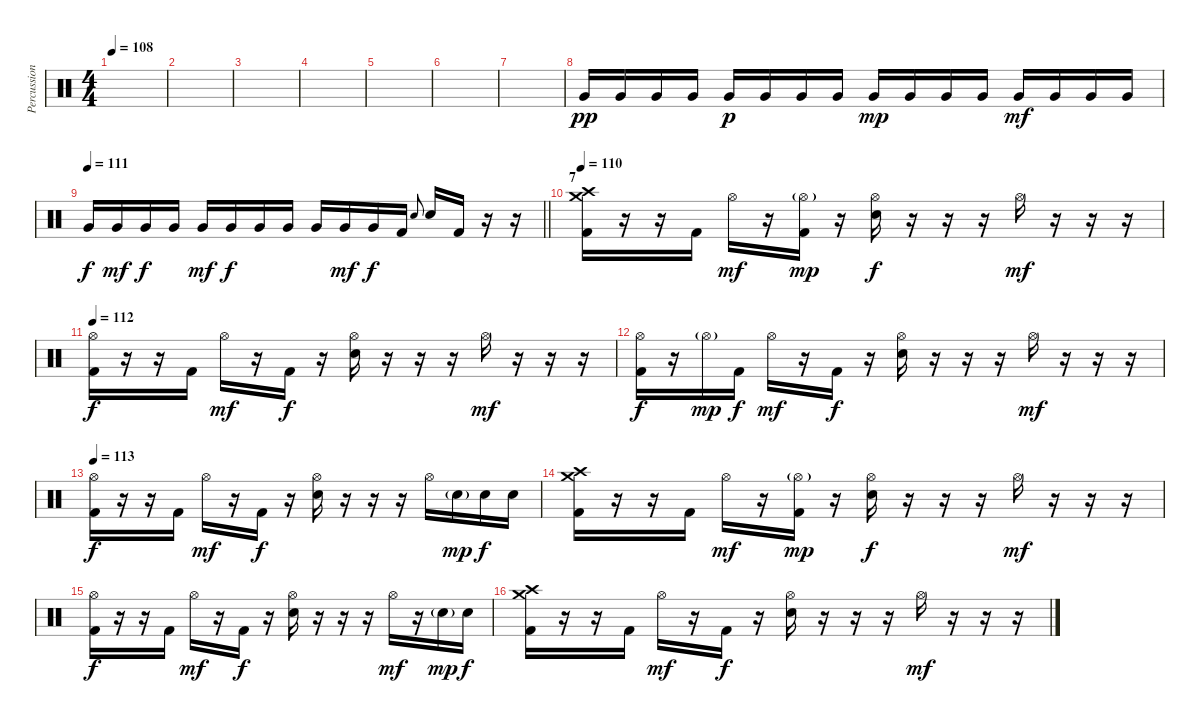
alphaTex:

\track ("Percussion" "Percussion") {instrument percussion}
\staff {score}
\articulation defaults
\ts (4 4)
\tempo 108
\clef neutral
\ks c
|
|
|
|
|
|
|
"Very Low Tom (hit)".16{dy pp} "Very Low Tom (hit)".16 "Very Low Tom (hit)".16 "Very Low Tom (hit)".16 "Very Low Tom (hit)".16{dy p} "Very Low Tom (hit)".16 "Very Low Tom (hit)".16 "Very Low Tom (hit)".16 "Very Low Tom (hit)".16{dy mp} "Very Low Tom (hit)".16 "Very Low Tom (hit)".16 "Very Low Tom (hit)".16 "Very Low Tom (hit)".16{dy mf} "Very Low Tom (hit)".16 "Very Low Tom (hit)".16 "Very Low Tom (hit)".16 |
\tempo 111
\barLineRight lightlight "Very Low Tom (hit)".16{dy f} "Very Low Tom (hit)".16{dy mf} "Very Low Tom (hit)".16{dy f} "Very Low Tom (hit)".16 "Very Low Tom (hit)".16{dy mf} "Very Low Tom (hit)".16{dy f} "Very Low Tom (hit)".16 "Very Low Tom (hit)".16 "Very Low Tom (hit)".16 "Very Low Tom (hit)".16{dy mf} "Very Low Tom (hit)".16{dy f} "Kick (hit) 2".16 "Snare (hit) 2".8{gr onbeat} "Snare (hit) 2".16 "Kick (hit) 2".16
r.16 r.16 |
\section ("" "7")
\tempo 110
("Crash high (hit)" "Crash medium (hit)" "Kick (hit) 2").16 r.16 r.16 "Kick (hit) 2".16 "Hi-Hat (open)".16{dy mf} r.16 ("Hi-Hat (open)"{g} "Kick (hit) 2").16{dy mp} r.16 ("Hi-Hat (open)" "Snare (hit) 2").16{dy f} r.16 r.16 r.16 "Hi-Hat (open)".16{dy mf} r.16 r.16 r.16 |
\tempo 112
("Hi-Hat (open)" "Kick (hit) 2").16{dy f} r.16 r.16 "Kick (hit) 2".16 "Hi-Hat (open)".16{dy mf} r.16 "Kick (hit) 2".16{dy f} r.16 ("Hi-Hat (open)" "Snare (hit) 2").16 r.16 r.16 r.16 "Hi-Hat (open)".16{dy mf} r.16 r.16 r.16 |
("Hi-Hat (open)" "Kick (hit) 2").16{dy f} r.16 "Hi-Hat (open)"{g}.16{dy mp} "Kick (hit) 2".16{dy f} "Hi-Hat (open)".16{dy mf} r.16 "Kick (hit) 2".16{dy f} r.16 ("Hi-Hat (open)" "Snare (hit) 2").16 r.16 r.16 r.16 "Hi-Hat (open)".16{dy mf} r.16 r.16 r.16 |
\tempo 113
("Hi-Hat (open)" "Kick (hit) 2").16{dy f} r.16 r.16 "Kick (hit) 2".16 "Hi-Hat (open)".16{dy mf} r.16 "Kick (hit) 2".16{dy f} r.16 ("Hi-Hat (open)" "Snare (hit) 2").16 r.16 r.16 r.16 "Hi-Hat (open)".16 "Snare (hit) 2"{g}.16{dy mp} "Snare (hit) 2".16{dy f} "Snare (hit) 2".16 |
("Crash high (hit)" "Crash medium (hit)" "Kick (hit) 2").16 r.16 r.16 "Kick (hit) 2".16 "Hi-Hat (open)".16{dy mf} r.16 ("Hi-Hat (open)"{g} "Kick (hit) 2").16{dy mp} r.16 ("Hi-Hat (open)" "Snare (hit) 2").16{dy f} r.16 r.16 r.16 "Hi-Hat (open)".16{dy mf} r.16 r.16 r.16 |
("Hi-Hat (open)" "Kick (hit) 2").16{dy f} r.16 r.16 "Kick (hit) 2".16 "Hi-Hat (open)".16{dy mf} r.16 "Kick (hit) 2".16{dy f} r.16 ("Hi-Hat (open)" "Snare (hit) 2").16 r.16 r.16 r.16 "Hi-Hat (open)".16{dy mf} r.16 "Snare (hit) 2"{g}.16{dy mp} "Snare (hit) 2".16{dy f} |
("Crash high (hit)" "Crash medium (hit)" "Kick (hit) 2").16 r.16 r.16 "Kick (hit) 2".16 "Hi-Hat (open)".16{dy mf} r.16 "Kick (hit) 2".16{dy f} r.16 ("Hi-Hat (open)" "Snare (hit) 2").16 r.16 r.16 r.16 "Hi-Hat (open)".16{dy mf} r.16 r.16 r.16
